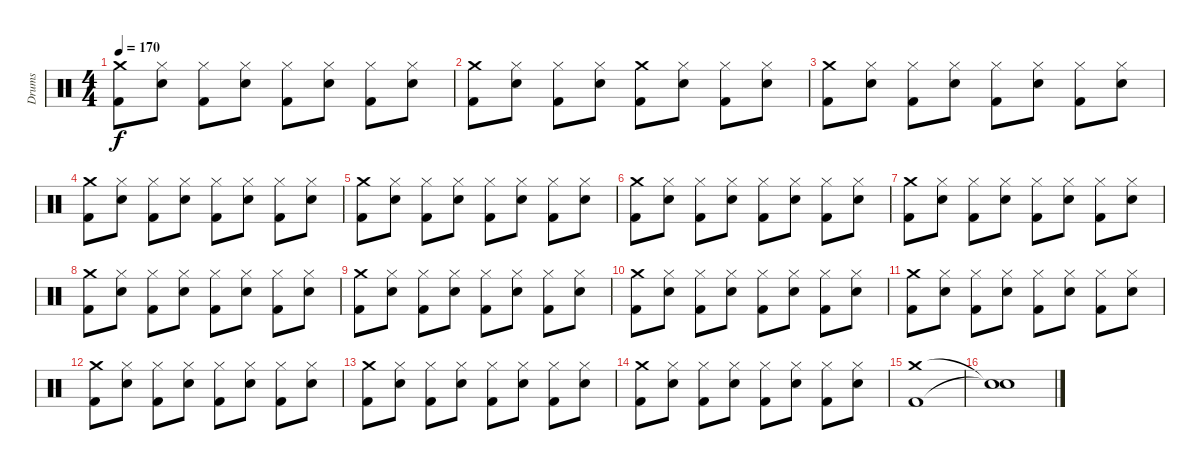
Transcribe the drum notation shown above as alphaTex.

\track ("Drums" "Drums") {instrument percussion}
\staff {score}
\articulation defaults
\ts (4 4)
\tempo 170
\clef neutral
\ks c
("Crash medium (hit)" "Kick (hit) 2").8{dy f} ("Snare (hit) 2" "Hi-Hat (closed)").8 ("Hi-Hat (closed)" "Kick (hit) 2").8 ("Snare (hit) 2" "Hi-Hat (closed)").8 ("Hi-Hat (closed)" "Kick (hit) 2").8 ("Snare (hit) 2" "Hi-Hat (closed)").8 ("Hi-Hat (closed)" "Kick (hit) 2").8 ("Snare (hit) 2" "Hi-Hat (closed)").8 |
("Crash medium (hit)" "Kick (hit) 2").8 ("Snare (hit) 2" "Hi-Hat (closed)").8 ("Hi-Hat (closed)" "Kick (hit) 2").8 ("Snare (hit) 2" "Hi-Hat (closed)").8 ("Crash medium (hit)" "Kick (hit) 2").8 ("Snare (hit) 2" "Hi-Hat (closed)").8 ("Hi-Hat (closed)" "Kick (hit) 2").8 ("Snare (hit) 2" "Hi-Hat (closed)").8 |
("Crash medium (hit)" "Kick (hit) 2").8 ("Snare (hit) 2" "Hi-Hat (closed)").8 ("Hi-Hat (closed)" "Kick (hit) 2").8 ("Snare (hit) 2" "Hi-Hat (closed)").8 ("Hi-Hat (closed)" "Kick (hit) 2").8 ("Snare (hit) 2" "Hi-Hat (closed)").8 ("Hi-Hat (closed)" "Kick (hit) 2").8 ("Snare (hit) 2" "Hi-Hat (closed)").8 |
("Crash medium (hit)" "Kick (hit) 2").8 ("Snare (hit) 2" "Hi-Hat (closed)").8 ("Hi-Hat (closed)" "Kick (hit) 2").8 ("Snare (hit) 2" "Hi-Hat (closed)").8 ("Hi-Hat (closed)" "Kick (hit) 2").8 ("Snare (hit) 2" "Hi-Hat (closed)").8 ("Hi-Hat (closed)" "Kick (hit) 2").8 ("Snare (hit) 2" "Hi-Hat (closed)").8 |
("Crash medium (hit)" "Kick (hit) 2").8 ("Snare (hit) 2" "Hi-Hat (closed)").8 ("Hi-Hat (closed)" "Kick (hit) 2").8 ("Snare (hit) 2" "Hi-Hat (closed)").8 ("Hi-Hat (closed)" "Kick (hit) 2").8 ("Snare (hit) 2" "Hi-Hat (closed)").8 ("Hi-Hat (closed)" "Kick (hit) 2").8 ("Snare (hit) 2" "Hi-Hat (closed)").8 |
("Crash medium (hit)" "Kick (hit) 2").8 ("Snare (hit) 2" "Hi-Hat (closed)").8 ("Hi-Hat (closed)" "Kick (hit) 2").8 ("Snare (hit) 2" "Hi-Hat (closed)").8 ("Hi-Hat (closed)" "Kick (hit) 2").8 ("Snare (hit) 2" "Hi-Hat (closed)").8 ("Hi-Hat (closed)" "Kick (hit) 2").8 ("Snare (hit) 2" "Hi-Hat (closed)").8 |
("Crash medium (hit)" "Kick (hit) 2").8 ("Snare (hit) 2" "Hi-Hat (closed)").8 ("Hi-Hat (closed)" "Kick (hit) 2").8 ("Snare (hit) 2" "Hi-Hat (closed)").8 ("Hi-Hat (closed)" "Kick (hit) 2").8 ("Snare (hit) 2" "Hi-Hat (closed)").8 ("Hi-Hat (closed)" "Kick (hit) 2").8 ("Snare (hit) 2" "Hi-Hat (closed)").8 |
("Crash medium (hit)" "Kick (hit) 2").8 ("Snare (hit) 2" "Hi-Hat (closed)").8 ("Hi-Hat (closed)" "Kick (hit) 2").8 ("Snare (hit) 2" "Hi-Hat (closed)").8 ("Hi-Hat (closed)" "Kick (hit) 2").8 ("Snare (hit) 2" "Hi-Hat (closed)").8 ("Hi-Hat (closed)" "Kick (hit) 2").8 ("Snare (hit) 2" "Hi-Hat (closed)").8 |
("Crash medium (hit)" "Kick (hit) 2").8 ("Snare (hit) 2" "Hi-Hat (closed)").8 ("Hi-Hat (closed)" "Kick (hit) 2").8 ("Snare (hit) 2" "Hi-Hat (closed)").8 ("Hi-Hat (closed)" "Kick (hit) 2").8 ("Snare (hit) 2" "Hi-Hat (closed)").8 ("Hi-Hat (closed)" "Kick (hit) 2").8 ("Snare (hit) 2" "Hi-Hat (closed)").8 |
("Crash medium (hit)" "Kick (hit) 2").8 ("Snare (hit) 2" "Hi-Hat (closed)").8 ("Hi-Hat (closed)" "Kick (hit) 2").8 ("Snare (hit) 2" "Hi-Hat (closed)").8 ("Hi-Hat (closed)" "Kick (hit) 2").8 ("Snare (hit) 2" "Hi-Hat (closed)").8 ("Hi-Hat (closed)" "Kick (hit) 2").8 ("Snare (hit) 2" "Hi-Hat (closed)").8 |
("Crash medium (hit)" "Kick (hit) 2").8 ("Snare (hit) 2" "Hi-Hat (closed)").8 ("Hi-Hat (closed)" "Kick (hit) 2").8 ("Snare (hit) 2" "Hi-Hat (closed)").8 ("Hi-Hat (closed)" "Kick (hit) 2").8 ("Snare (hit) 2" "Hi-Hat (closed)").8 ("Hi-Hat (closed)" "Kick (hit) 2").8 ("Snare (hit) 2" "Hi-Hat (closed)").8 |
("Crash medium (hit)" "Kick (hit) 2").8 ("Snare (hit) 2" "Hi-Hat (closed)").8 ("Hi-Hat (closed)" "Kick (hit) 2").8 ("Snare (hit) 2" "Hi-Hat (closed)").8 ("Hi-Hat (closed)" "Kick (hit) 2").8 ("Snare (hit) 2" "Hi-Hat (closed)").8 ("Hi-Hat (closed)" "Kick (hit) 2").8 ("Snare (hit) 2" "Hi-Hat (closed)").8 |
("Crash medium (hit)" "Kick (hit) 2").8 ("Snare (hit) 2" "Hi-Hat (closed)").8 ("Hi-Hat (closed)" "Kick (hit) 2").8 ("Snare (hit) 2" "Hi-Hat (closed)").8 ("Hi-Hat (closed)" "Kick (hit) 2").8 ("Snare (hit) 2" "Hi-Hat (closed)").8 ("Hi-Hat (closed)" "Kick (hit) 2").8 ("Snare (hit) 2" "Hi-Hat (closed)").8 |
("Crash medium (hit)" "Kick (hit) 2").8 ("Snare (hit) 2" "Hi-Hat (closed)").8 ("Hi-Hat (closed)" "Kick (hit) 2").8 ("Snare (hit) 2" "Hi-Hat (closed)").8 ("Hi-Hat (closed)" "Kick (hit) 2").8 ("Snare (hit) 2" "Hi-Hat (closed)").8 ("Hi-Hat (closed)" "Kick (hit) 2").8 ("Snare (hit) 2" "Hi-Hat (closed)").8 |
("Crash medium (hit)" "Kick (hit) 2").1 |
("Snare (hit)"{t} "Snare (hit)"{t}).1
